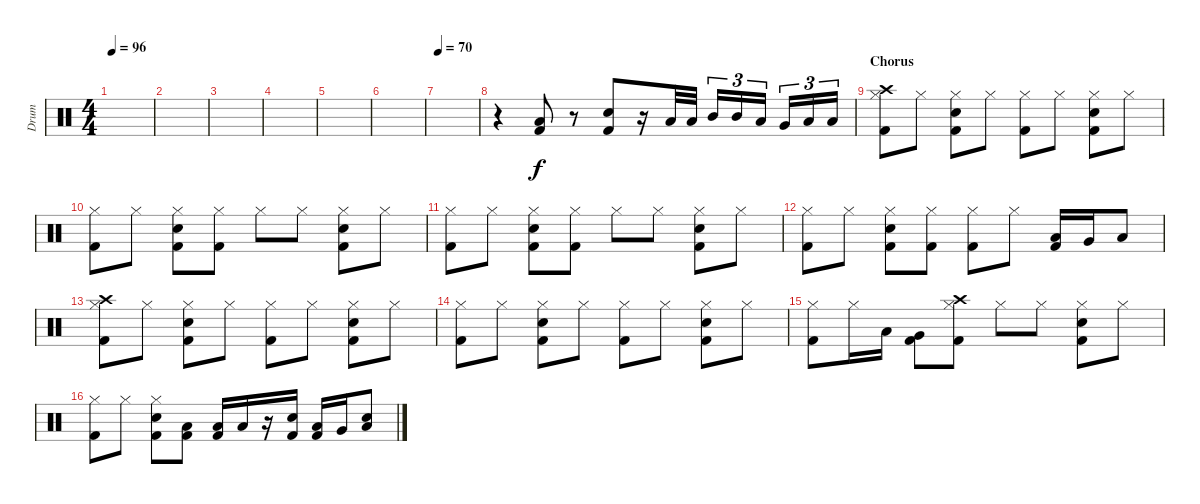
\track ("Drum" "Drum") {instrument percussion}
\staff {score}
\articulation defaults
\ts (4 4)
\tempo 96
\clef neutral
\ks c
|
|
|
|
|
|
\tempo 70
|
r.4 ("Low Floor Tom (hit)" "Kick (hit) 2").8 r.8 ("Electric Snare (hit)" "Kick (hit) 2").8 r.16 "Low Tom (hit)".32 "Low Tom (hit)".32 "Mid Tom (hit)".16{tu (3 2)} "Mid Tom (hit)".16{tu (3 2)} "Low Tom (hit)".16{tu (3 2)} "Very Low Tom (hit)".16{tu (3 2)} "Low Floor Tom (hit)".16{tu (3 2)} "Low Floor Tom (hit)".16{tu (3 2)} |
\section ("" "Chorus")
("Crash high (hit)" "Hi-Hat (closed)" "Kick (hit) 2").8 "Hi-Hat (closed)".8 ("Hi-Hat (closed)" "Electric Snare (hit)" "Kick (hit) 2").8 "Hi-Hat (closed)".8 ("Hi-Hat (closed)" "Kick (hit) 2").8 "Hi-Hat (closed)".8 ("Hi-Hat (closed)" "Electric Snare (hit)" "Kick (hit) 2").8 "Hi-Hat (closed)".8 |
("Hi-Hat (closed)" "Kick (hit) 2").8 "Hi-Hat (closed)".8 ("Hi-Hat (closed)" "Electric Snare (hit)" "Kick (hit) 2").8 ("Hi-Hat (closed)" "Kick (hit) 2").8 "Hi-Hat (closed)".8 "Hi-Hat (closed)".8 ("Hi-Hat (closed)" "Electric Snare (hit)" "Kick (hit) 2").8 "Hi-Hat (closed)".8 |
("Hi-Hat (closed)" "Kick (hit) 2").8 "Hi-Hat (closed)".8 ("Hi-Hat (closed)" "Electric Snare (hit)" "Kick (hit) 2").8 ("Hi-Hat (closed)" "Kick (hit) 2").8 "Hi-Hat (closed)".8 "Hi-Hat (closed)".8 ("Hi-Hat (closed)" "Electric Snare (hit)" "Kick (hit) 2").8 "Hi-Hat (closed)".8 |
("Hi-Hat (closed)" "Kick (hit) 2").8 "Hi-Hat (closed)".8 ("Hi-Hat (closed)" "Electric Snare (hit)" "Kick (hit) 2").8 ("Hi-Hat (closed)" "Kick (hit) 2").8 ("Hi-Hat (closed)" "Kick (hit) 2").8 "Hi-Hat (closed)".8 ("Low Tom (hit)" "Kick (hit) 2").16 "Very Low Tom (hit)".16 "Low Floor Tom (hit)".8 |
("Crash high (hit)" "Hi-Hat (closed)" "Kick (hit) 2").8 "Hi-Hat (closed)".8 ("Hi-Hat (closed)" "Electric Snare (hit)" "Kick (hit) 2").8 "Hi-Hat (closed)".8 ("Hi-Hat (closed)" "Kick (hit) 2").8 "Hi-Hat (closed)".8 ("Hi-Hat (closed)" "Electric Snare (hit)" "Kick (hit) 2").8 "Hi-Hat (closed)".8 |
("Hi-Hat (closed)" "Kick (hit) 2").8 "Hi-Hat (closed)".8 ("Hi-Hat (closed)" "Electric Snare (hit)" "Kick (hit) 2").8 "Hi-Hat (closed)".8 ("Hi-Hat (closed)" "Kick (hit) 2").8 "Hi-Hat (closed)".8 ("Hi-Hat (closed)" "Electric Snare (hit)" "Kick (hit) 2").8 "Hi-Hat (closed)".8 |
("Hi-Hat (closed)" "Kick (hit) 2").8 "Hi-Hat (closed)".16 "Low Floor Tom (hit)".16 ("Very Low Tom (hit)" "Kick (hit) 2").8 ("Crash high (hit)" "Hi-Hat (closed)" "Kick (hit) 2").8 "Hi-Hat (closed)".8 "Hi-Hat (closed)".8 ("Hi-Hat (closed)" "Electric Snare (hit)" "Kick (hit) 2").8 "Hi-Hat (closed)".8 |
("Hi-Hat (closed)" "Kick (hit) 2").8 "Hi-Hat (closed)".8 ("Hi-Hat (closed)" "Electric Snare (hit)" "Kick (hit) 2").8 ("Low Tom (hit)" "Kick (hit) 2").8 ("Low Tom (hit)" "Kick (hit) 2").16 "Low Tom (hit)".16 r.16 ("Electric Snare (hit)" "Kick (hit) 2").16 ("Low Tom (hit)" "Kick (hit) 2").16 "Very Low Tom (hit)".16 ("Electric Snare (hit)" "Low Floor Tom (hit)").8
